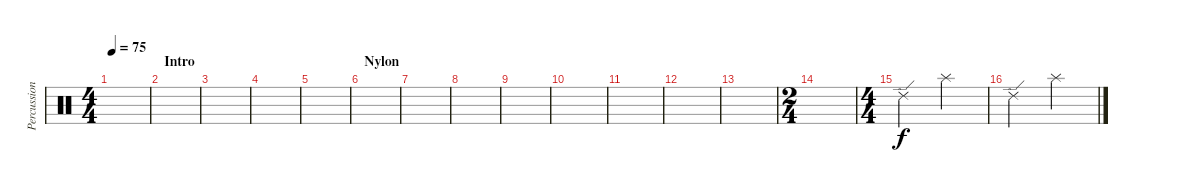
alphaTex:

\track ("Percussion" "Percussion") {instrument percussion}
\staff {score}
\articulation defaults
\ts (4 4)
\tempo 75
\clef neutral
\ks c
|
\section ("" "Intro")
|
|
|
|
\section ("" "Nylon ")
|
|
|
|
|
|
|
|
\ts (2 4)
|
\ts (4 4)
"Ride (edge) 2".2 "Splash (hit)".2 |
"Ride (edge) 2".2 "Splash (hit)".2
